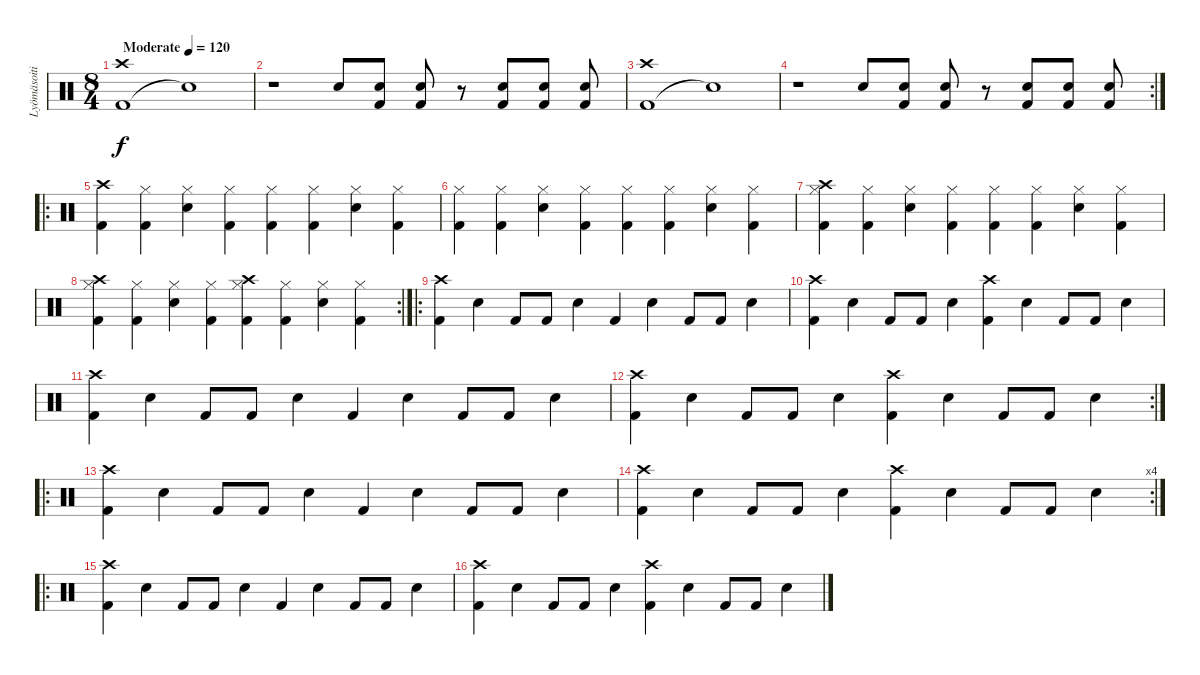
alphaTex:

\track ("Lyömäsoitin" "Lyömäsoiti") {instrument percussion}
\staff {score}
\articulation defaults
\ts (8 4)
\tempo (120 "Moderate")
\clef neutral
\ks c
("Kick (hit) 2" "Crash high (hit)").1{dy f} "Snare (hit)"{t}.1 |
r.1 "Snare (hit) 2".8 ("Snare (hit) 2" "Kick (hit) 2").8 ("Snare (hit) 2" "Kick (hit) 2").8 r.8 ("Snare (hit) 2" "Kick (hit) 2").8 ("Snare (hit) 2" "Kick (hit) 2").8 ("Snare (hit) 2" "Kick (hit) 2").8 |
("Kick (hit) 2" "Crash high (hit)").1 "Snare (hit)"{t}.1 |
\rc 2
r.1 "Snare (hit) 2".8 ("Snare (hit) 2" "Kick (hit) 2").8 ("Snare (hit) 2" "Kick (hit) 2").8 r.8 ("Snare (hit) 2" "Kick (hit) 2").8 ("Snare (hit) 2" "Kick (hit) 2").8 ("Snare (hit) 2" "Kick (hit) 2").8 |
\ro
("Crash high (hit)" "Kick (hit) 2").4 ("Hi-Hat (closed)" "Kick (hit) 2").4 ("Hi-Hat (closed)" "Snare (hit) 2").4 ("Hi-Hat (closed)" "Kick (hit) 2").4 ("Hi-Hat (closed)" "Kick (hit) 2").4 ("Hi-Hat (closed)" "Kick (hit) 2").4 ("Hi-Hat (closed)" "Snare (hit) 2").4 ("Hi-Hat (closed)" "Kick (hit) 2").4 |
("Hi-Hat (closed)" "Kick (hit) 2").4 ("Hi-Hat (closed)" "Kick (hit) 2").4 ("Hi-Hat (closed)" "Snare (hit) 2").4 ("Hi-Hat (closed)" "Kick (hit) 2").4 ("Hi-Hat (closed)" "Kick (hit) 2").4 ("Hi-Hat (closed)" "Kick (hit) 2").4 ("Hi-Hat (closed)" "Snare (hit) 2").4 ("Hi-Hat (closed)" "Kick (hit) 2").4 |
("Hi-Hat (closed)" "Crash high (hit)" "Kick (hit) 2").4 ("Hi-Hat (closed)" "Kick (hit) 2").4 ("Hi-Hat (closed)" "Snare (hit) 2").4 ("Hi-Hat (closed)" "Kick (hit) 2").4 ("Hi-Hat (closed)" "Kick (hit) 2").4 ("Hi-Hat (closed)" "Kick (hit) 2").4 ("Hi-Hat (closed)" "Snare (hit) 2").4 ("Hi-Hat (closed)" "Kick (hit) 2").4 |
\rc 2
("Hi-Hat (closed)" "Crash high (hit)" "Kick (hit) 2").4 ("Hi-Hat (closed)" "Kick (hit) 2").4 ("Hi-Hat (closed)" "Snare (hit) 2").4 ("Hi-Hat (closed)" "Kick (hit) 2").4 ("Hi-Hat (closed)" "Crash high (hit)" "Kick (hit) 2").4 ("Hi-Hat (closed)" "Kick (hit) 2").4 ("Hi-Hat (closed)" "Snare (hit) 2").4 ("Hi-Hat (closed)" "Kick (hit) 2").4 |
\ro
("Crash high (hit)" "Kick (hit) 2").4 "Snare (hit) 2".4 "Kick (hit) 2".8 "Kick (hit) 2".8 "Snare (hit) 2".4 "Kick (hit) 2".4 "Snare (hit) 2".4 "Kick (hit) 2".8 "Kick (hit) 2".8 "Snare (hit) 2".4 |
("Crash high (hit)" "Kick (hit) 2").4 "Snare (hit) 2".4 "Kick (hit) 2".8 "Kick (hit) 2".8 "Snare (hit) 2".4 ("Crash high (hit)" "Kick (hit) 2").4 "Snare (hit) 2".4 "Kick (hit) 2".8 "Kick (hit) 2".8 "Snare (hit) 2".4 |
("Crash high (hit)" "Kick (hit) 2").4 "Snare (hit) 2".4 "Kick (hit) 2".8 "Kick (hit) 2".8 "Snare (hit) 2".4 "Kick (hit) 2".4 "Snare (hit) 2".4 "Kick (hit) 2".8 "Kick (hit) 2".8 "Snare (hit) 2".4 |
\rc 2
("Crash high (hit)" "Kick (hit) 2").4 "Snare (hit) 2".4 "Kick (hit) 2".8 "Kick (hit) 2".8 "Snare (hit) 2".4 ("Crash high (hit)" "Kick (hit) 2").4 "Snare (hit) 2".4 "Kick (hit) 2".8 "Kick (hit) 2".8 "Snare (hit) 2".4 |
\ro
("Crash high (hit)" "Kick (hit) 2").4 "Snare (hit) 2".4 "Kick (hit) 2".8 "Kick (hit) 2".8 "Snare (hit) 2".4 "Kick (hit) 2".4 "Snare (hit) 2".4 "Kick (hit) 2".8 "Kick (hit) 2".8 "Snare (hit) 2".4 |
\rc 4
("Crash high (hit)" "Kick (hit) 2").4 "Snare (hit) 2".4 "Kick (hit) 2".8 "Kick (hit) 2".8 "Snare (hit) 2".4 ("Crash high (hit)" "Kick (hit) 2").4 "Snare (hit) 2".4 "Kick (hit) 2".8 "Kick (hit) 2".8 "Snare (hit) 2".4 |
\ro
("Crash high (hit)" "Kick (hit) 2").4 "Snare (hit) 2".4 "Kick (hit) 2".8 "Kick (hit) 2".8 "Snare (hit) 2".4 "Kick (hit) 2".4 "Snare (hit) 2".4 "Kick (hit) 2".8 "Kick (hit) 2".8 "Snare (hit) 2".4 |
("Crash high (hit)" "Kick (hit) 2").4 "Snare (hit) 2".4 "Kick (hit) 2".8 "Kick (hit) 2".8 "Snare (hit) 2".4 ("Crash high (hit)" "Kick (hit) 2").4 "Snare (hit) 2".4 "Kick (hit) 2".8 "Kick (hit) 2".8 "Snare (hit) 2".4
